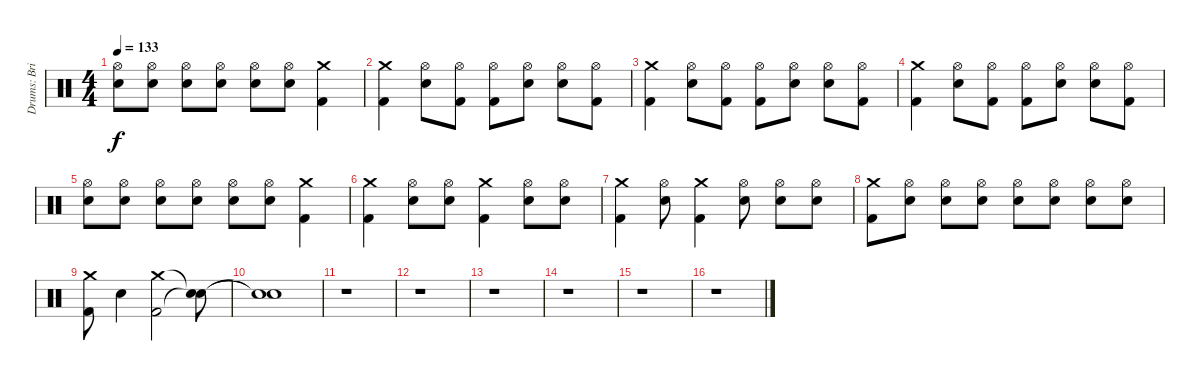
\track ("Drums: Brian Mantila" "Drums: Bri") {instrument percussion}
\staff {score}
\articulation defaults
\ts (4 4)
\tempo 133
\clef neutral
\ks c
("Electric Snare (hit)" "Hi-Hat (open)").8{dy f} ("Electric Snare (hit)" "Hi-Hat (open)").8 ("Electric Snare (hit)" "Hi-Hat (open)").8 ("Electric Snare (hit)" "Hi-Hat (open)").8 ("Electric Snare (hit)" "Hi-Hat (open)").8 ("Electric Snare (hit)" "Hi-Hat (open)").8 ("Crash medium (hit)" "Kick (hit) 2").4 |
("Crash medium (hit)" "Kick (hit) 2").4 ("Electric Snare (hit)" "Hi-Hat (open)").8 ("Kick (hit) 2" "Hi-Hat (open)").8 ("Kick (hit) 2" "Hi-Hat (open)").8 ("Electric Snare (hit)" "Hi-Hat (open)").8 ("Electric Snare (hit)" "Hi-Hat (open)").8 ("Kick (hit) 2" "Hi-Hat (open)").8 |
("Crash medium (hit)" "Kick (hit) 2").4 ("Electric Snare (hit)" "Hi-Hat (open)").8 ("Kick (hit) 2" "Hi-Hat (open)").8 ("Kick (hit) 2" "Hi-Hat (open)").8 ("Electric Snare (hit)" "Hi-Hat (open)").8 ("Electric Snare (hit)" "Hi-Hat (open)").8 ("Kick (hit) 2" "Hi-Hat (open)").8 |
("Crash medium (hit)" "Kick (hit) 2").4 ("Electric Snare (hit)" "Hi-Hat (open)").8 ("Kick (hit) 2" "Hi-Hat (open)").8 ("Kick (hit) 2" "Hi-Hat (open)").8 ("Electric Snare (hit)" "Hi-Hat (open)").8 ("Electric Snare (hit)" "Hi-Hat (open)").8 ("Kick (hit) 2" "Hi-Hat (open)").8 |
("Electric Snare (hit)" "Hi-Hat (open)").8 ("Electric Snare (hit)" "Hi-Hat (open)").8 ("Electric Snare (hit)" "Hi-Hat (open)").8 ("Electric Snare (hit)" "Hi-Hat (open)").8 ("Electric Snare (hit)" "Hi-Hat (open)").8 ("Electric Snare (hit)" "Hi-Hat (open)").8 ("Crash medium (hit)" "Kick (hit) 2").4 |
("Crash medium (hit)" "Kick (hit) 2").4 ("Electric Snare (hit)" "Hi-Hat (open)").8 ("Electric Snare (hit)" "Hi-Hat (open)").8 ("Crash medium (hit)" "Kick (hit) 2").4 ("Electric Snare (hit)" "Hi-Hat (open)").8 ("Electric Snare (hit)" "Hi-Hat (open)").8 |
("Crash medium (hit)" "Kick (hit) 2").4 ("Electric Snare (hit)" "Hi-Hat (open)").8 ("Crash medium (hit)" "Kick (hit) 2").4 ("Electric Snare (hit)" "Hi-Hat (open)").8 ("Electric Snare (hit)" "Hi-Hat (open)").8 ("Electric Snare (hit)" "Hi-Hat (open)").8 |
("Crash medium (hit)" "Kick (hit) 2").8 ("Electric Snare (hit)" "Hi-Hat (open)").8 ("Electric Snare (hit)" "Hi-Hat (open)").8 ("Electric Snare (hit)" "Hi-Hat (open)").8 ("Electric Snare (hit)" "Hi-Hat (open)").8 ("Electric Snare (hit)" "Hi-Hat (open)").8 ("Electric Snare (hit)" "Hi-Hat (open)").8 ("Electric Snare (hit)" "Hi-Hat (open)").8 |
("Crash medium (hit)" "Kick (hit) 2").8 "Electric Snare (hit)".4 ("Crash medium (hit)" "Kick (hit) 2").2 ("Snare (hit)"{t} "Snare (hit)"{t}).8 |
("Snare (hit)"{t} "Snare (hit)"{t}).1 |
r.1 |
r.1 |
r.1 |
r.1 |
r.1 |
r.1
